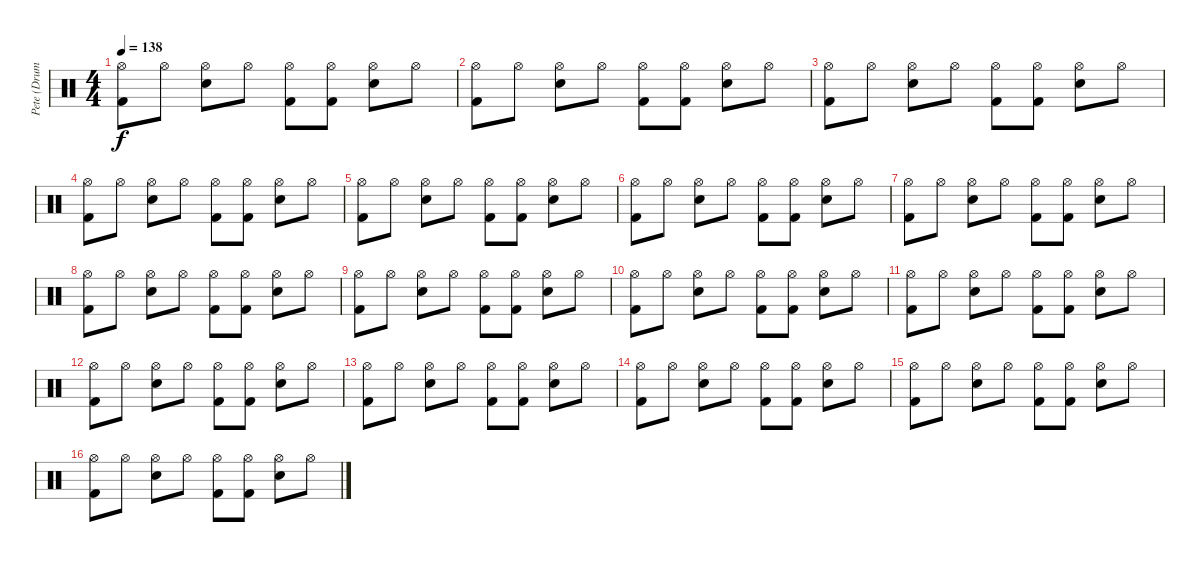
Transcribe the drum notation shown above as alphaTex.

\track ("Pete (Drums)" "Pete (Drum") {instrument percussion}
\staff {score}
\articulation defaults
\ts (4 4)
\tempo 138
\clef neutral
\ks c
("Hi-Hat (open)" "Kick (hit) 2").8{dy f} "Hi-Hat (open)".8 ("Hi-Hat (open)" "Snare (hit) 2").8 "Hi-Hat (open)".8 ("Hi-Hat (open)" "Kick (hit) 2").8 ("Hi-Hat (open)" "Kick (hit) 2").8 ("Hi-Hat (open)" "Snare (hit) 2").8 "Hi-Hat (open)".8 |
("Hi-Hat (open)" "Kick (hit) 2").8 "Hi-Hat (open)".8 ("Hi-Hat (open)" "Snare (hit) 2").8 "Hi-Hat (open)".8 ("Hi-Hat (open)" "Kick (hit) 2").8 ("Hi-Hat (open)" "Kick (hit) 2").8 ("Hi-Hat (open)" "Snare (hit) 2").8 "Hi-Hat (open)".8 |
("Hi-Hat (open)" "Kick (hit) 2").8 "Hi-Hat (open)".8 ("Hi-Hat (open)" "Snare (hit) 2").8 "Hi-Hat (open)".8 ("Hi-Hat (open)" "Kick (hit) 2").8 ("Hi-Hat (open)" "Kick (hit) 2").8 ("Hi-Hat (open)" "Snare (hit) 2").8 "Hi-Hat (open)".8 |
("Hi-Hat (open)" "Kick (hit) 2").8 "Hi-Hat (open)".8 ("Hi-Hat (open)" "Snare (hit) 2").8 "Hi-Hat (open)".8 ("Hi-Hat (open)" "Kick (hit) 2").8 ("Hi-Hat (open)" "Kick (hit) 2").8 ("Hi-Hat (open)" "Snare (hit) 2").8 "Hi-Hat (open)".8 |
("Hi-Hat (open)" "Kick (hit) 2").8 "Hi-Hat (open)".8 ("Hi-Hat (open)" "Snare (hit) 2").8 "Hi-Hat (open)".8 ("Hi-Hat (open)" "Kick (hit) 2").8 ("Hi-Hat (open)" "Kick (hit) 2").8 ("Hi-Hat (open)" "Snare (hit) 2").8 "Hi-Hat (open)".8 |
("Hi-Hat (open)" "Kick (hit) 2").8 "Hi-Hat (open)".8 ("Hi-Hat (open)" "Snare (hit) 2").8 "Hi-Hat (open)".8 ("Hi-Hat (open)" "Kick (hit) 2").8 ("Hi-Hat (open)" "Kick (hit) 2").8 ("Hi-Hat (open)" "Snare (hit) 2").8 "Hi-Hat (open)".8 |
("Hi-Hat (open)" "Kick (hit) 2").8 "Hi-Hat (open)".8 ("Hi-Hat (open)" "Snare (hit) 2").8 "Hi-Hat (open)".8 ("Hi-Hat (open)" "Kick (hit) 2").8 ("Hi-Hat (open)" "Kick (hit) 2").8 ("Hi-Hat (open)" "Snare (hit) 2").8 "Hi-Hat (open)".8 |
("Hi-Hat (open)" "Kick (hit) 2").8 "Hi-Hat (open)".8 ("Hi-Hat (open)" "Snare (hit) 2").8 "Hi-Hat (open)".8 ("Hi-Hat (open)" "Kick (hit) 2").8 ("Hi-Hat (open)" "Kick (hit) 2").8 ("Hi-Hat (open)" "Snare (hit) 2").8 "Hi-Hat (open)".8 |
("Hi-Hat (open)" "Kick (hit) 2").8 "Hi-Hat (open)".8 ("Hi-Hat (open)" "Snare (hit) 2").8 "Hi-Hat (open)".8 ("Hi-Hat (open)" "Kick (hit) 2").8 ("Hi-Hat (open)" "Kick (hit) 2").8 ("Hi-Hat (open)" "Snare (hit) 2").8 "Hi-Hat (open)".8 |
("Hi-Hat (open)" "Kick (hit) 2").8 "Hi-Hat (open)".8 ("Hi-Hat (open)" "Snare (hit) 2").8 "Hi-Hat (open)".8 ("Hi-Hat (open)" "Kick (hit) 2").8 ("Hi-Hat (open)" "Kick (hit) 2").8 ("Hi-Hat (open)" "Snare (hit) 2").8 "Hi-Hat (open)".8 |
("Hi-Hat (open)" "Kick (hit) 2").8 "Hi-Hat (open)".8 ("Hi-Hat (open)" "Snare (hit) 2").8 "Hi-Hat (open)".8 ("Hi-Hat (open)" "Kick (hit) 2").8 ("Hi-Hat (open)" "Kick (hit) 2").8 ("Hi-Hat (open)" "Snare (hit) 2").8 "Hi-Hat (open)".8 |
("Hi-Hat (open)" "Kick (hit) 2").8 "Hi-Hat (open)".8 ("Hi-Hat (open)" "Snare (hit) 2").8 "Hi-Hat (open)".8 ("Hi-Hat (open)" "Kick (hit) 2").8 ("Hi-Hat (open)" "Kick (hit) 2").8 ("Hi-Hat (open)" "Snare (hit) 2").8 "Hi-Hat (open)".8 |
("Hi-Hat (open)" "Kick (hit) 2").8 "Hi-Hat (open)".8 ("Hi-Hat (open)" "Snare (hit) 2").8 "Hi-Hat (open)".8 ("Hi-Hat (open)" "Kick (hit) 2").8 ("Hi-Hat (open)" "Kick (hit) 2").8 ("Hi-Hat (open)" "Snare (hit) 2").8 "Hi-Hat (open)".8 |
("Hi-Hat (open)" "Kick (hit) 2").8 "Hi-Hat (open)".8 ("Hi-Hat (open)" "Snare (hit) 2").8 "Hi-Hat (open)".8 ("Hi-Hat (open)" "Kick (hit) 2").8 ("Hi-Hat (open)" "Kick (hit) 2").8 ("Hi-Hat (open)" "Snare (hit) 2").8 "Hi-Hat (open)".8 |
("Hi-Hat (open)" "Kick (hit) 2").8 "Hi-Hat (open)".8 ("Hi-Hat (open)" "Snare (hit) 2").8 "Hi-Hat (open)".8 ("Hi-Hat (open)" "Kick (hit) 2").8 ("Hi-Hat (open)" "Kick (hit) 2").8 ("Hi-Hat (open)" "Snare (hit) 2").8 "Hi-Hat (open)".8 |
("Hi-Hat (open)" "Kick (hit) 2").8 "Hi-Hat (open)".8 ("Hi-Hat (open)" "Snare (hit) 2").8 "Hi-Hat (open)".8 ("Hi-Hat (open)" "Kick (hit) 2").8 ("Hi-Hat (open)" "Kick (hit) 2").8 ("Hi-Hat (open)" "Snare (hit) 2").8 "Hi-Hat (open)".8
